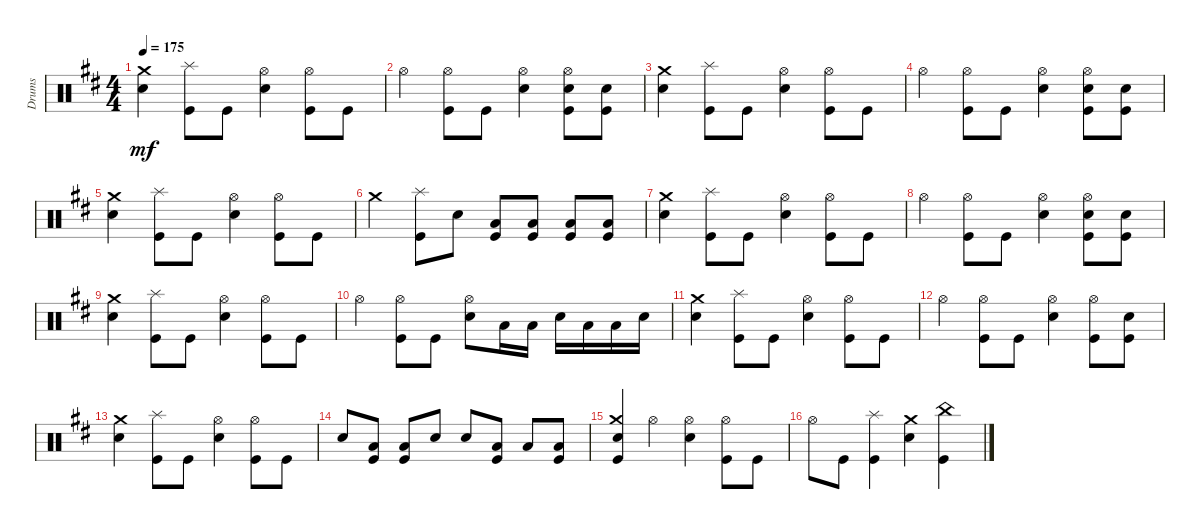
\track ("Drums" "Drums") {instrument percussion}
\staff {score}
\articulation defaults
\ts (4 4)
\tempo 175
\clef neutral
\ks d
("Snare (hit) 2" "Crash medium (hit)").4{dy mf} ("Kick (hit)" "Splash (hit)").8 "Kick (hit)".8 ("Snare (hit) 2" "Hi-Hat (open)").4 ("Hi-Hat (open)" "Kick (hit)").8 "Kick (hit)".8 |
"Hi-Hat (open)".4 ("Hi-Hat (open)" "Kick (hit)").8 "Kick (hit)".8 ("Snare (hit) 2" "Hi-Hat (open)").4 ("Hi-Hat (open)" "Kick (hit)" "Snare (hit) 2").8 ("Kick (hit)" "Snare (hit) 2").8 |
("Snare (hit) 2" "Crash medium (hit)").4 ("Kick (hit)" "Splash (hit)").8 "Kick (hit)".8 ("Snare (hit) 2" "Hi-Hat (open)").4 ("Hi-Hat (open)" "Kick (hit)").8 "Kick (hit)".8 |
"Hi-Hat (open)".4 ("Hi-Hat (open)" "Kick (hit)").8 "Kick (hit)".8 ("Snare (hit) 2" "Hi-Hat (open)").4 ("Hi-Hat (open)" "Kick (hit)" "Snare (hit) 2").8 ("Kick (hit)" "Snare (hit) 2").8 |
("Snare (hit) 2" "Crash medium (hit)").4 ("Kick (hit)" "Splash (hit)").8 "Kick (hit)".8 ("Snare (hit) 2" "Hi-Hat (open)").4 ("Hi-Hat (open)" "Kick (hit)").8 "Kick (hit)".8 |
"Crash medium (hit)".4 ("Splash (hit)" "Kick (hit)").8 "Snare (hit) 2".8 ("Kick (hit)" "Low Floor Tom (hit)").8 ("Kick (hit)" "Low Floor Tom (hit)").8 ("Kick (hit)" "Low Floor Tom (hit)").8 ("Kick (hit)" "Low Floor Tom (hit)").8 |
("Snare (hit) 2" "Crash medium (hit)").4 ("Kick (hit)" "Splash (hit)").8 "Kick (hit)".8 ("Snare (hit) 2" "Hi-Hat (open)").4 ("Hi-Hat (open)" "Kick (hit)").8 "Kick (hit)".8 |
"Hi-Hat (open)".4 ("Hi-Hat (open)" "Kick (hit)").8 "Kick (hit)".8 ("Snare (hit) 2" "Hi-Hat (open)").4 ("Hi-Hat (open)" "Kick (hit)" "Snare (hit) 2").8 ("Kick (hit)" "Snare (hit) 2").8 |
("Snare (hit) 2" "Crash medium (hit)").4 ("Kick (hit)" "Splash (hit)").8 "Kick (hit)".8 ("Snare (hit) 2" "Hi-Hat (open)").4 ("Hi-Hat (open)" "Kick (hit)").8 "Kick (hit)".8 |
"Hi-Hat (open)".4 ("Hi-Hat (open)" "Kick (hit)").8 "Kick (hit)".8 ("Snare (hit) 2" "Hi-Hat (open)").8 "Low Floor Tom (hit)".16 "Low Floor Tom (hit)".16 "Snare (hit) 2".16 "Low Floor Tom (hit)".16 "Low Floor Tom (hit)".16 "Snare (hit) 2".16 |
("Snare (hit) 2" "Crash medium (hit)").4 ("Kick (hit)" "Splash (hit)").8 "Kick (hit)".8 ("Snare (hit) 2" "Hi-Hat (open)").4 ("Hi-Hat (open)" "Kick (hit)").8 "Kick (hit)".8 |
"Hi-Hat (open)".4 ("Hi-Hat (open)" "Kick (hit)").8 "Kick (hit)".8 ("Snare (hit) 2" "Hi-Hat (open)").4 ("Hi-Hat (open)" "Kick (hit)").8 ("Kick (hit)" "Snare (hit) 2").8 |
("Snare (hit) 2" "Crash medium (hit)").4 ("Kick (hit)" "Splash (hit)").8 "Kick (hit)".8 ("Snare (hit) 2" "Hi-Hat (open)").4 ("Hi-Hat (open)" "Kick (hit)").8 "Kick (hit)".8 |
"Snare (hit) 2".8 ("Low Floor Tom (hit)" "Kick (hit)").8 ("Low Floor Tom (hit)" "Kick (hit)").8 "Snare (hit) 2".8 "Snare (hit) 2".8 ("Low Floor Tom (hit)" "Kick (hit)").8 "Low Floor Tom (hit)".8 ("Low Floor Tom (hit)" "Kick (hit)").8 |
("Kick (hit)" "Snare (hit) 2" "Crash medium (hit)").4 "Hi-Hat (open)".4 ("Hi-Hat (open)" "Snare (hit) 2").4 ("Hi-Hat (open)" "Kick (hit)").8 "Kick (hit)".8 |
"Hi-Hat (open)".8 "Kick (hit)".8 ("Kick (hit)" "Splash (hit)").4 ("Crash medium (hit)" "Snare (hit) 2").4 ("China (hit)" "Kick (hit)").4
